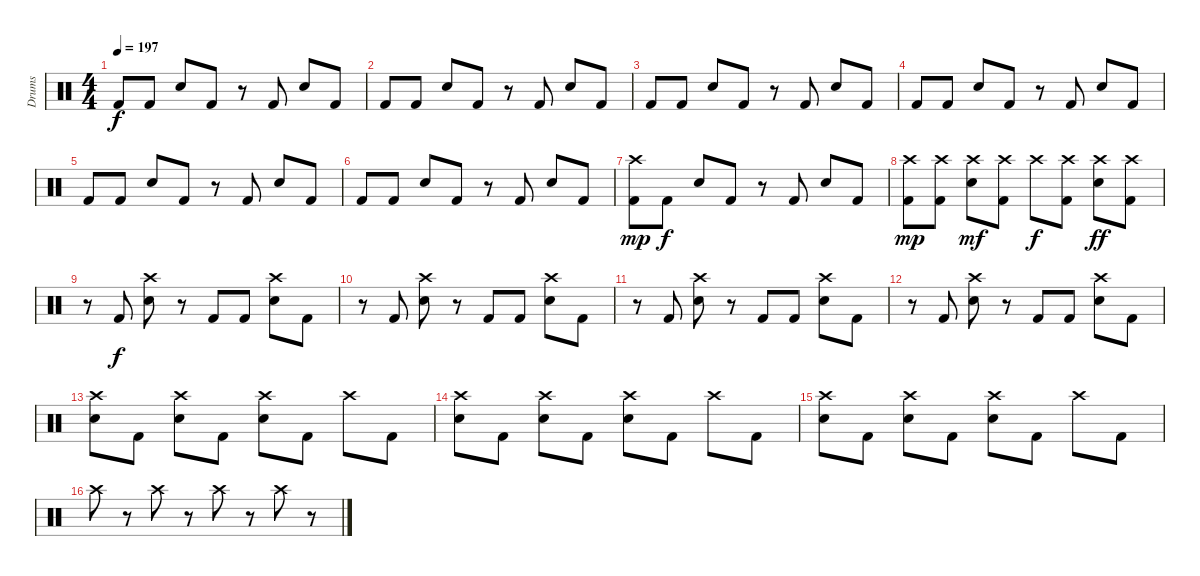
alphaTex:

\track ("Drums" "Drums") {instrument percussion}
\staff {score}
\articulation defaults
\ts (4 4)
\tempo 197
\clef neutral
\ks c "Kick (hit) 2".8{dy f} "Kick (hit) 2".8 "Electric Snare (hit)".8 "Kick (hit) 2".8
r.8 "Kick (hit) 2".8 "Electric Snare (hit)".8 "Kick (hit) 2".8 |
"Kick (hit) 2".8 "Kick (hit) 2".8 "Electric Snare (hit)".8 "Kick (hit) 2".8 r.8 "Kick (hit) 2".8 "Electric Snare (hit)".8 "Kick (hit) 2".8 |
"Kick (hit) 2".8 "Kick (hit) 2".8 "Electric Snare (hit)".8 "Kick (hit) 2".8 r.8 "Kick (hit) 2".8 "Electric Snare (hit)".8 "Kick (hit) 2".8 |
"Kick (hit) 2".8 "Kick (hit) 2".8 "Electric Snare (hit)".8 "Kick (hit) 2".8 r.8 "Kick (hit) 2".8 "Electric Snare (hit)".8 "Kick (hit) 2".8 |
"Kick (hit) 2".8 "Kick (hit) 2".8 "Electric Snare (hit)".8 "Kick (hit) 2".8 r.8 "Kick (hit) 2".8 "Electric Snare (hit)".8 "Kick (hit) 2".8 |
"Kick (hit) 2".8 "Kick (hit) 2".8 "Electric Snare (hit)".8 "Kick (hit) 2".8 r.8 "Kick (hit) 2".8 "Electric Snare (hit)".8 "Kick (hit) 2".8 |
("Crash high (hit)" "Kick (hit) 2").8{dy mp} "Kick (hit) 2".8{dy f} "Electric Snare (hit)".8 "Kick (hit) 2".8 r.8 "Kick (hit) 2".8 "Electric Snare (hit)".8 "Kick (hit) 2".8 |
("Crash high (hit)" "Kick (hit) 2").8{dy mp} ("Crash high (hit)" "Kick (hit) 2").8 ("Crash high (hit)" "Electric Snare (hit)").8{dy mf} ("Crash high (hit)" "Kick (hit) 2").8 "Crash high (hit)".8{dy f} ("Crash high (hit)" "Kick (hit) 2").8 ("Crash high (hit)" "Electric Snare (hit)").8{dy ff} ("Crash high (hit)" "Kick (hit) 2").8 |
r.8 "Kick (hit) 2".8{dy f} ("Crash high (hit)" "Electric Snare (hit)").8 r.8 "Kick (hit) 2".8 "Kick (hit) 2".8 ("Crash high (hit)" "Electric Snare (hit)").8 "Kick (hit) 2".8 |
r.8 "Kick (hit) 2".8 ("Crash high (hit)" "Electric Snare (hit)").8 r.8 "Kick (hit) 2".8 "Kick (hit) 2".8 ("Crash high (hit)" "Electric Snare (hit)").8 "Kick (hit) 2".8 |
r.8 "Kick (hit) 2".8 ("Crash high (hit)" "Electric Snare (hit)").8 r.8 "Kick (hit) 2".8 "Kick (hit) 2".8 ("Crash high (hit)" "Electric Snare (hit)").8 "Kick (hit) 2".8 |
r.8 "Kick (hit) 2".8 ("Crash high (hit)" "Electric Snare (hit)").8 r.8 "Kick (hit) 2".8 "Kick (hit) 2".8 ("Crash high (hit)" "Electric Snare (hit)").8 "Kick (hit) 2".8 |
("Crash high (hit)" "Electric Snare (hit)").8 "Kick (hit) 2".8 ("Crash high (hit)" "Electric Snare (hit)").8 "Kick (hit) 2".8 ("Crash high (hit)" "Electric Snare (hit)").8 "Kick (hit) 2".8 "Crash high (hit)".8 "Kick (hit) 2".8 |
("Crash high (hit)" "Electric Snare (hit)").8 "Kick (hit) 2".8 ("Crash high (hit)" "Electric Snare (hit)").8 "Kick (hit) 2".8 ("Crash high (hit)" "Electric Snare (hit)").8 "Kick (hit) 2".8 "Crash high (hit)".8 "Kick (hit) 2".8 |
("Crash high (hit)" "Electric Snare (hit)").8 "Kick (hit) 2".8 ("Crash high (hit)" "Electric Snare (hit)").8 "Kick (hit) 2".8 ("Crash high (hit)" "Electric Snare (hit)").8 "Kick (hit) 2".8 "Crash high (hit)".8 "Kick (hit) 2".8 |
"Crash high (hit)".8 r.8 "Crash high (hit)".8 r.8 "Crash high (hit)".8 r.8 "Crash high (hit)".8 r.8
